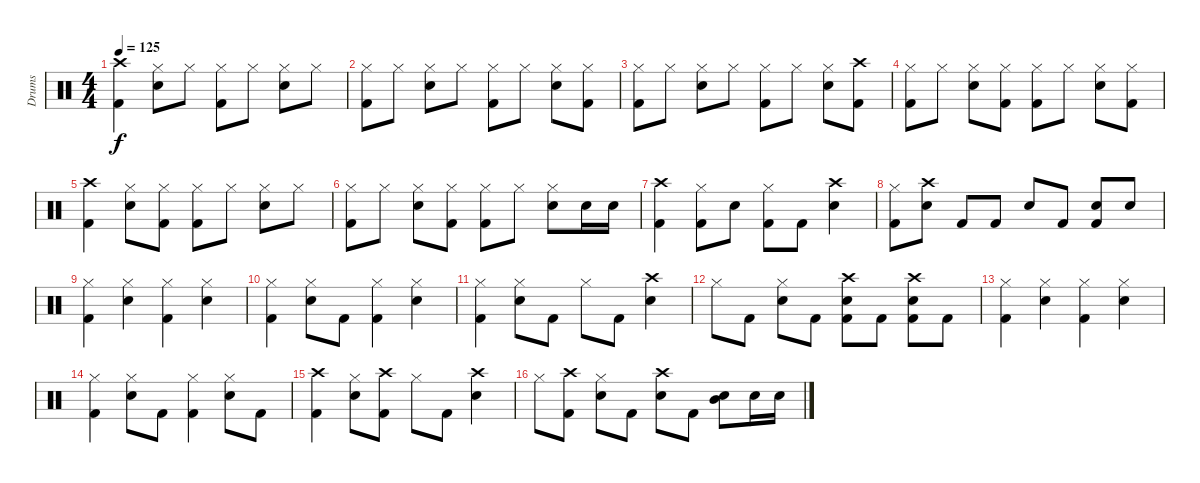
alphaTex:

\track ("Drums" "Drums") {instrument percussion}
\staff {score}
\articulation defaults
\ts (4 4)
\tempo 125
\clef neutral
\ks c
("Crash high (hit)" "Kick (hit) 2").4{dy f} ("Hi-Hat (closed)" "Electric Snare (hit)").8 "Hi-Hat (closed)".8 ("Hi-Hat (closed)" "Kick (hit) 2").8 "Hi-Hat (closed)".8 ("Hi-Hat (closed)" "Electric Snare (hit)").8 "Hi-Hat (closed)".8 |
("Hi-Hat (closed)" "Kick (hit) 2").8 "Hi-Hat (closed)".8 ("Hi-Hat (closed)" "Electric Snare (hit)").8 "Hi-Hat (closed)".8 ("Hi-Hat (closed)" "Kick (hit) 2").8 "Hi-Hat (closed)".8 ("Hi-Hat (closed)" "Electric Snare (hit)").8 ("Hi-Hat (closed)" "Kick (hit) 2").8 |
("Hi-Hat (closed)" "Kick (hit) 2").8 "Hi-Hat (closed)".8 ("Hi-Hat (closed)" "Electric Snare (hit)").8 "Hi-Hat (closed)".8 ("Hi-Hat (closed)" "Kick (hit) 2").8 "Hi-Hat (closed)".8 ("Hi-Hat (closed)" "Electric Snare (hit)").8 ("Crash high (hit)" "Kick (hit) 2").8 |
("Hi-Hat (closed)" "Kick (hit) 2").8 "Hi-Hat (closed)".8 ("Hi-Hat (closed)" "Electric Snare (hit)").8 ("Hi-Hat (closed)" "Kick (hit) 2").8 ("Hi-Hat (closed)" "Kick (hit) 2").8 "Hi-Hat (closed)".8 ("Hi-Hat (closed)" "Electric Snare (hit)").8 ("Hi-Hat (closed)" "Kick (hit) 2").8 |
("Crash high (hit)" "Kick (hit) 2").4 ("Hi-Hat (closed)" "Electric Snare (hit)").8 ("Hi-Hat (closed)" "Kick (hit) 2").8 ("Hi-Hat (closed)" "Kick (hit) 2").8 "Hi-Hat (closed)".8 ("Hi-Hat (closed)" "Electric Snare (hit)").8 "Hi-Hat (closed)".8 |
("Hi-Hat (closed)" "Kick (hit) 2").8 "Hi-Hat (closed)".8 ("Hi-Hat (closed)" "Electric Snare (hit)").8 ("Hi-Hat (closed)" "Kick (hit) 2").8 ("Hi-Hat (closed)" "Kick (hit) 2").8 "Hi-Hat (closed)".8 ("Hi-Hat (closed)" "Electric Snare (hit)").8 "Electric Snare (hit)".16 "Electric Snare (hit)".16 |
("Crash high (hit)" "Kick (hit) 2").4 ("Hi-Hat (closed)" "Kick (hit) 2").8 "Electric Snare (hit)".8 ("Hi-Hat (closed)" "Kick (hit) 2").8 "Kick (hit) 2".8 ("Crash high (hit)" "Electric Snare (hit)").4 |
("Hi-Hat (closed)" "Kick (hit) 2").8 ("Crash high (hit)" "Electric Snare (hit)").8 "Kick (hit) 2".8 "Kick (hit) 2".8 "Electric Snare (hit)".8 "Kick (hit) 2".8 ("Electric Snare (hit)" "Kick (hit) 2").8 "Electric Snare (hit)".8 |
("Hi-Hat (closed)" "Kick (hit) 2").4 ("Hi-Hat (closed)" "Electric Snare (hit)").4 ("Hi-Hat (closed)" "Kick (hit) 2").4 ("Hi-Hat (closed)" "Electric Snare (hit)").4 |
("Hi-Hat (closed)" "Kick (hit) 2").4 ("Hi-Hat (closed)" "Electric Snare (hit)").8 "Kick (hit) 2".8 ("Hi-Hat (closed)" "Kick (hit) 2").4 ("Hi-Hat (closed)" "Electric Snare (hit)").4 |
("Hi-Hat (closed)" "Kick (hit) 2").4 ("Hi-Hat (closed)" "Electric Snare (hit)").8 "Kick (hit) 2".8 "Hi-Hat (closed)".8 "Kick (hit) 2".8 ("Crash high (hit)" "Electric Snare (hit)").4 |
"Hi-Hat (closed)".8 "Kick (hit) 2".8 ("Hi-Hat (closed)" "Electric Snare (hit)").8 "Kick (hit) 2".8 ("Crash high (hit)" "Electric Snare (hit)" "Kick (hit) 2").8 "Kick (hit) 2".8 ("Crash high (hit)" "Electric Snare (hit)" "Kick (hit) 2").8 "Kick (hit) 2".8 |
("Hi-Hat (closed)" "Kick (hit) 2").4 ("Hi-Hat (closed)" "Electric Snare (hit)").4 ("Hi-Hat (closed)" "Kick (hit) 2").4 ("Hi-Hat (closed)" "Electric Snare (hit)").4 |
("Hi-Hat (closed)" "Kick (hit) 2").4 ("Hi-Hat (closed)" "Electric Snare (hit)").8 "Kick (hit) 2".8 ("Hi-Hat (closed)" "Kick (hit) 2").4 ("Hi-Hat (closed)" "Electric Snare (hit)").8 "Kick (hit) 2".8 |
("Crash high (hit)" "Kick (hit) 2").4 ("Hi-Hat (closed)" "Electric Snare (hit)").8 ("Crash high (hit)" "Kick (hit) 2").8 "Hi-Hat (closed)".8 "Kick (hit) 2".8 ("Crash high (hit)" "Electric Snare (hit)").4 |
"Hi-Hat (closed)".8 ("Crash high (hit)" "Kick (hit) 2").8 ("Hi-Hat (closed)" "Electric Snare (hit)").8 "Kick (hit) 2".8 ("Crash high (hit)" "Electric Snare (hit)").8 "Kick (hit) 2".8 ("Mid Tom (hit)" "Electric Snare (hit)").8 "Electric Snare (hit)".16 "Electric Snare (hit)".16
